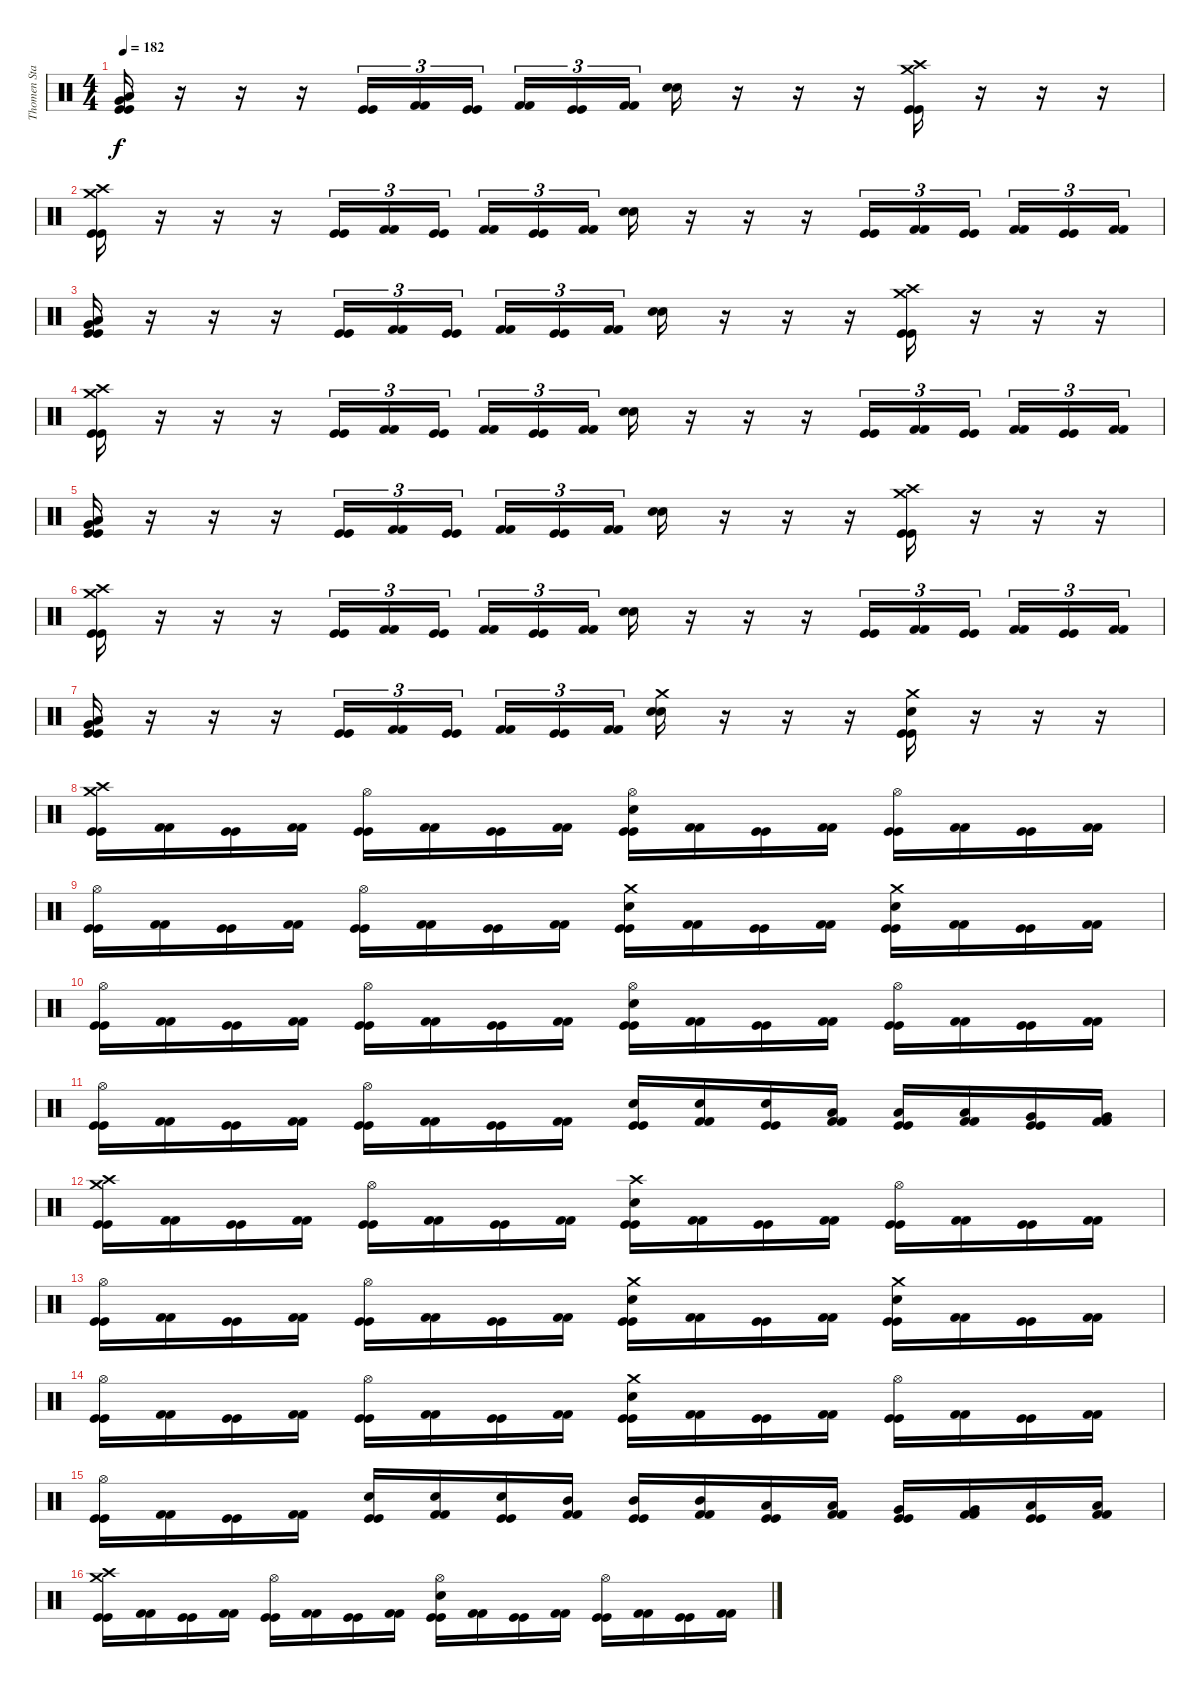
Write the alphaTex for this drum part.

\track ("Thomen Stauch" "Thomen Sta") {instrument percussion}
\staff {score}
\articulation defaults
\ts (4 4)
\tempo 182
\clef neutral
\ks c
("Very Low Tom (hit)" "Low Tom (hit)" "Kick (hit)" "Kick (hit)").16{dy f} r.16 r.16 r.16 ("Kick (hit)" "Kick (hit)").16{tu (3 2)} ("Kick (hit) 2" "Kick (hit) 2").16{tu (3 2)} ("Kick (hit)" "Kick (hit)").16{tu (3 2)} ("Kick (hit) 2" "Kick (hit) 2").16{tu (3 2)} ("Kick (hit)" "Kick (hit)").16{tu (3 2)} ("Kick (hit) 2" "Kick (hit) 2").16{tu (3 2)} ("Snare (hit) 2" "Snare (hit) 2").16 r.16 r.16 r.16 ("Crash medium (hit)" "Crash high (hit)" "Kick (hit)" "Kick (hit)").16 r.16 r.16 r.16 |
("Crash medium (hit)" "Crash high (hit)" "Kick (hit)" "Kick (hit)").16 r.16 r.16 r.16 ("Kick (hit)" "Kick (hit)").16{tu (3 2)} ("Kick (hit) 2" "Kick (hit) 2").16{tu (3 2)} ("Kick (hit)" "Kick (hit)").16{tu (3 2)} ("Kick (hit) 2" "Kick (hit) 2").16{tu (3 2)} ("Kick (hit)" "Kick (hit)").16{tu (3 2)} ("Kick (hit) 2" "Kick (hit) 2").16{tu (3 2)} ("Snare (hit) 2" "Snare (hit) 2").16 r.16 r.16 r.16 ("Kick (hit)" "Kick (hit)").16{tu (3 2)} ("Kick (hit) 2" "Kick (hit) 2").16{tu (3 2)} ("Kick (hit)" "Kick (hit)").16{tu (3 2)} ("Kick (hit) 2" "Kick (hit) 2").16{tu (3 2)} ("Kick (hit)" "Kick (hit)").16{tu (3 2)} ("Kick (hit) 2" "Kick (hit) 2").16{tu (3 2)} |
("Very Low Tom (hit)" "Low Tom (hit)" "Kick (hit)" "Kick (hit)").16 r.16 r.16 r.16 ("Kick (hit)" "Kick (hit)").16{tu (3 2)} ("Kick (hit) 2" "Kick (hit) 2").16{tu (3 2)} ("Kick (hit)" "Kick (hit)").16{tu (3 2)} ("Kick (hit) 2" "Kick (hit) 2").16{tu (3 2)} ("Kick (hit)" "Kick (hit)").16{tu (3 2)} ("Kick (hit) 2" "Kick (hit) 2").16{tu (3 2)} ("Snare (hit) 2" "Snare (hit) 2").16 r.16 r.16 r.16 ("Crash medium (hit)" "Crash high (hit)" "Kick (hit)" "Kick (hit)").16 r.16 r.16 r.16 |
("Crash medium (hit)" "Crash high (hit)" "Kick (hit)" "Kick (hit)").16 r.16 r.16 r.16 ("Kick (hit)" "Kick (hit)").16{tu (3 2)} ("Kick (hit) 2" "Kick (hit) 2").16{tu (3 2)} ("Kick (hit)" "Kick (hit)").16{tu (3 2)} ("Kick (hit) 2" "Kick (hit) 2").16{tu (3 2)} ("Kick (hit)" "Kick (hit)").16{tu (3 2)} ("Kick (hit) 2" "Kick (hit) 2").16{tu (3 2)} ("Snare (hit) 2" "Snare (hit) 2").16 r.16 r.16 r.16 ("Kick (hit)" "Kick (hit)").16{tu (3 2)} ("Kick (hit) 2" "Kick (hit) 2").16{tu (3 2)} ("Kick (hit)" "Kick (hit)").16{tu (3 2)} ("Kick (hit) 2" "Kick (hit) 2").16{tu (3 2)} ("Kick (hit)" "Kick (hit)").16{tu (3 2)} ("Kick (hit) 2" "Kick (hit) 2").16{tu (3 2)} |
("Very Low Tom (hit)" "Low Tom (hit)" "Kick (hit)" "Kick (hit)").16 r.16 r.16 r.16 ("Kick (hit)" "Kick (hit)").16{tu (3 2)} ("Kick (hit) 2" "Kick (hit) 2").16{tu (3 2)} ("Kick (hit)" "Kick (hit)").16{tu (3 2)} ("Kick (hit) 2" "Kick (hit) 2").16{tu (3 2)} ("Kick (hit)" "Kick (hit)").16{tu (3 2)} ("Kick (hit) 2" "Kick (hit) 2").16{tu (3 2)} ("Snare (hit) 2" "Snare (hit) 2").16 r.16 r.16 r.16 ("Crash medium (hit)" "Crash high (hit)" "Kick (hit)" "Kick (hit)").16 r.16 r.16 r.16 |
("Crash medium (hit)" "Crash high (hit)" "Kick (hit)" "Kick (hit)").16 r.16 r.16 r.16 ("Kick (hit)" "Kick (hit)").16{tu (3 2)} ("Kick (hit) 2" "Kick (hit) 2").16{tu (3 2)} ("Kick (hit)" "Kick (hit)").16{tu (3 2)} ("Kick (hit) 2" "Kick (hit) 2").16{tu (3 2)} ("Kick (hit)" "Kick (hit)").16{tu (3 2)} ("Kick (hit) 2" "Kick (hit) 2").16{tu (3 2)} ("Snare (hit) 2" "Snare (hit) 2").16 r.16 r.16 r.16 ("Kick (hit)" "Kick (hit)").16{tu (3 2)} ("Kick (hit) 2" "Kick (hit) 2").16{tu (3 2)} ("Kick (hit)" "Kick (hit)").16{tu (3 2)} ("Kick (hit) 2" "Kick (hit) 2").16{tu (3 2)} ("Kick (hit)" "Kick (hit)").16{tu (3 2)} ("Kick (hit) 2" "Kick (hit) 2").16{tu (3 2)} |
("Very Low Tom (hit)" "Low Tom (hit)" "Kick (hit)" "Kick (hit)").16 r.16 r.16 r.16 ("Kick (hit)" "Kick (hit)").16{tu (3 2)} ("Kick (hit) 2" "Kick (hit) 2").16{tu (3 2)} ("Kick (hit)" "Kick (hit)").16{tu (3 2)} ("Kick (hit) 2" "Kick (hit) 2").16{tu (3 2)} ("Kick (hit)" "Kick (hit)").16{tu (3 2)} ("Kick (hit) 2" "Kick (hit) 2").16{tu (3 2)} ("Crash medium (hit)" "Snare (hit) 2" "Snare (hit) 2").16 r.16 r.16 r.16 ("Crash medium (hit)" "Snare (hit) 2" "Kick (hit)" "Kick (hit)").16 r.16 r.16 r.16 |
("Crash medium (hit)" "Crash high (hit)" "Kick (hit)" "Kick (hit)").16 ("Kick (hit) 2" "Kick (hit) 2").16 ("Kick (hit)" "Kick (hit)").16 ("Kick (hit) 2" "Kick (hit) 2").16 ("Hi-Hat (open)" "Kick (hit)" "Kick (hit)").16 ("Kick (hit) 2" "Kick (hit) 2").16 ("Kick (hit)" "Kick (hit)").16 ("Kick (hit) 2" "Kick (hit) 2").16 ("Hi-Hat (open)" "Snare (hit) 2" "Kick (hit)" "Kick (hit)").16 ("Kick (hit) 2" "Kick (hit) 2").16 ("Kick (hit)" "Kick (hit)").16 ("Kick (hit) 2" "Kick (hit) 2").16 ("Hi-Hat (open)" "Kick (hit)" "Kick (hit)").16 ("Kick (hit) 2" "Kick (hit) 2").16 ("Kick (hit)" "Kick (hit)").16 ("Kick (hit) 2" "Kick (hit) 2").16 |
("Hi-Hat (open)" "Kick (hit)" "Kick (hit)").16 ("Kick (hit) 2" "Kick (hit) 2").16 ("Kick (hit)" "Kick (hit)").16 ("Kick (hit) 2" "Kick (hit) 2").16 ("Hi-Hat (open)" "Kick (hit)" "Kick (hit)").16 ("Kick (hit) 2" "Kick (hit) 2").16 ("Kick (hit)" "Kick (hit)").16 ("Kick (hit) 2" "Kick (hit) 2").16 ("Crash medium (hit)" "Snare (hit) 2" "Kick (hit)" "Kick (hit)").16 ("Kick (hit) 2" "Kick (hit) 2").16 ("Kick (hit)" "Kick (hit)").16 ("Kick (hit) 2" "Kick (hit) 2").16 ("Crash medium (hit)" "Snare (hit) 2" "Kick (hit)" "Kick (hit)").16 ("Kick (hit) 2" "Kick (hit) 2").16 ("Kick (hit)" "Kick (hit)").16 ("Kick (hit) 2" "Kick (hit) 2").16 |
("Hi-Hat (open)" "Kick (hit)" "Kick (hit)").16 ("Kick (hit) 2" "Kick (hit) 2").16 ("Kick (hit)" "Kick (hit)").16 ("Kick (hit) 2" "Kick (hit) 2").16 ("Hi-Hat (open)" "Kick (hit)" "Kick (hit)").16 ("Kick (hit) 2" "Kick (hit) 2").16 ("Kick (hit)" "Kick (hit)").16 ("Kick (hit) 2" "Kick (hit) 2").16 ("Hi-Hat (open)" "Snare (hit) 2" "Kick (hit)" "Kick (hit)").16 ("Kick (hit) 2" "Kick (hit) 2").16 ("Kick (hit)" "Kick (hit)").16 ("Kick (hit) 2" "Kick (hit) 2").16 ("Hi-Hat (open)" "Kick (hit)" "Kick (hit)").16 ("Kick (hit) 2" "Kick (hit) 2").16 ("Kick (hit)" "Kick (hit)").16 ("Kick (hit) 2" "Kick (hit) 2").16 |
("Hi-Hat (open)" "Kick (hit)" "Kick (hit)").16 ("Kick (hit) 2" "Kick (hit) 2").16 ("Kick (hit)" "Kick (hit)").16 ("Kick (hit) 2" "Kick (hit) 2").16 ("Hi-Hat (open)" "Kick (hit)" "Kick (hit)").16 ("Kick (hit) 2" "Kick (hit) 2").16 ("Kick (hit)" "Kick (hit)").16 ("Kick (hit) 2" "Kick (hit) 2").16 ("Snare (hit) 2" "Kick (hit)" "Kick (hit)").16 ("Snare (hit) 2" "Kick (hit) 2" "Kick (hit) 2").16 ("Snare (hit) 2" "Kick (hit)" "Kick (hit)").16 ("Low Tom (hit)" "Kick (hit) 2" "Kick (hit) 2").16 ("Low Tom (hit)" "Kick (hit)" "Kick (hit)").16 ("Low Tom (hit)" "Kick (hit) 2" "Kick (hit) 2").16 ("Very Low Tom (hit)" "Kick (hit)" "Kick (hit)").16 ("Very Low Tom (hit)" "Kick (hit) 2" "Kick (hit) 2").16 |
("Crash medium (hit)" "Crash high (hit)" "Kick (hit)" "Kick (hit)").16 ("Kick (hit) 2" "Kick (hit) 2").16 ("Kick (hit)" "Kick (hit)").16 ("Kick (hit) 2" "Kick (hit) 2").16 ("Hi-Hat (open)" "Kick (hit)" "Kick (hit)").16 ("Kick (hit) 2" "Kick (hit) 2").16 ("Kick (hit)" "Kick (hit)").16 ("Kick (hit) 2" "Kick (hit) 2").16 ("Crash high (hit)" "Snare (hit) 2" "Kick (hit)" "Kick (hit)").16 ("Kick (hit) 2" "Kick (hit) 2").16 ("Kick (hit)" "Kick (hit)").16 ("Kick (hit) 2" "Kick (hit) 2").16 ("Hi-Hat (open)" "Kick (hit)" "Kick (hit)").16 ("Kick (hit) 2" "Kick (hit) 2").16 ("Kick (hit)" "Kick (hit)").16 ("Kick (hit) 2" "Kick (hit) 2").16 |
("Hi-Hat (open)" "Kick (hit)" "Kick (hit)").16 ("Kick (hit) 2" "Kick (hit) 2").16 ("Kick (hit)" "Kick (hit)").16 ("Kick (hit) 2" "Kick (hit) 2").16 ("Hi-Hat (open)" "Kick (hit)" "Kick (hit)").16 ("Kick (hit) 2" "Kick (hit) 2").16 ("Kick (hit)" "Kick (hit)").16 ("Kick (hit) 2" "Kick (hit) 2").16 ("Crash medium (hit)" "Snare (hit) 2" "Kick (hit)" "Kick (hit)").16 ("Kick (hit) 2" "Kick (hit) 2").16 ("Kick (hit)" "Kick (hit)").16 ("Kick (hit) 2" "Kick (hit) 2").16 ("Crash medium (hit)" "Snare (hit) 2" "Kick (hit)" "Kick (hit)").16 ("Kick (hit) 2" "Kick (hit) 2").16 ("Kick (hit)" "Kick (hit)").16 ("Kick (hit) 2" "Kick (hit) 2").16 |
("Hi-Hat (open)" "Kick (hit)" "Kick (hit)").16 ("Kick (hit) 2" "Kick (hit) 2").16 ("Kick (hit)" "Kick (hit)").16 ("Kick (hit) 2" "Kick (hit) 2").16 ("Hi-Hat (open)" "Kick (hit)" "Kick (hit)").16 ("Kick (hit) 2" "Kick (hit) 2").16 ("Kick (hit)" "Kick (hit)").16 ("Kick (hit) 2" "Kick (hit) 2").16 ("Crash medium (hit)" "Snare (hit) 2" "Kick (hit)" "Kick (hit)").16 ("Kick (hit) 2" "Kick (hit) 2").16 ("Kick (hit)" "Kick (hit)").16 ("Kick (hit) 2" "Kick (hit) 2").16 ("Hi-Hat (open)" "Kick (hit)" "Kick (hit)").16 ("Kick (hit) 2" "Kick (hit) 2").16 ("Kick (hit)" "Kick (hit)").16 ("Kick (hit) 2" "Kick (hit) 2").16 |
("Hi-Hat (open)" "Kick (hit)" "Kick (hit)").16 ("Kick (hit) 2" "Kick (hit) 2").16 ("Kick (hit)" "Kick (hit)").16 ("Kick (hit) 2" "Kick (hit) 2").16 ("Snare (hit) 2" "Kick (hit)" "Kick (hit)").16 ("Snare (hit) 2" "Kick (hit) 2" "Kick (hit) 2").16 ("Snare (hit) 2" "Kick (hit)" "Kick (hit)").16 ("Mid Tom (hit)" "Kick (hit) 2" "Kick (hit) 2").16 ("Mid Tom (hit)" "Kick (hit)" "Kick (hit)").16 ("Mid Tom (hit)" "Kick (hit) 2" "Kick (hit) 2").16 ("Low Tom (hit)" "Kick (hit)" "Kick (hit)").16 ("Low Tom (hit)" "Kick (hit) 2" "Kick (hit) 2").16 ("Very Low Tom (hit)" "Kick (hit)" "Kick (hit)").16 ("Very Low Tom (hit)" "Kick (hit) 2" "Kick (hit) 2").16 ("Low Floor Tom (hit)" "Kick (hit)" "Kick (hit)").16 ("Low Floor Tom (hit)" "Kick (hit) 2" "Kick (hit) 2").16 |
("Crash medium (hit)" "Crash high (hit)" "Kick (hit)" "Kick (hit)").16 ("Kick (hit) 2" "Kick (hit) 2").16 ("Kick (hit)" "Kick (hit)").16 ("Kick (hit) 2" "Kick (hit) 2").16 ("Hi-Hat (open)" "Kick (hit)" "Kick (hit)").16 ("Kick (hit) 2" "Kick (hit) 2").16 ("Kick (hit)" "Kick (hit)").16 ("Kick (hit) 2" "Kick (hit) 2").16 ("Hi-Hat (open)" "Snare (hit) 2" "Kick (hit)" "Kick (hit)").16 ("Kick (hit) 2" "Kick (hit) 2").16 ("Kick (hit)" "Kick (hit)").16 ("Kick (hit) 2" "Kick (hit) 2").16 ("Hi-Hat (open)" "Kick (hit)" "Kick (hit)").16 ("Kick (hit) 2" "Kick (hit) 2").16 ("Kick (hit)" "Kick (hit)").16 ("Kick (hit) 2" "Kick (hit) 2").16
